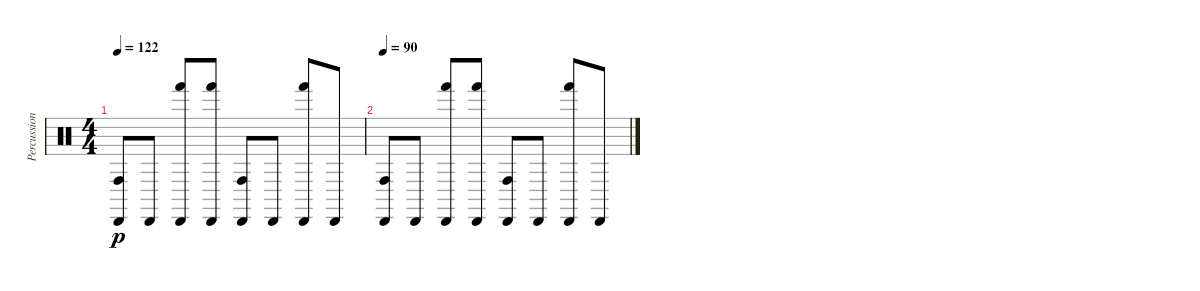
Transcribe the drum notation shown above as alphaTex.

\track ("Percussion" "Percussion") {instrument percussion}
\staff {score}
\articulation defaults
\ts (4 4)
\tempo 122
\clef neutral
\ks c
("Conga high (hit)" "Cabasa (hit)").8{dy p} "Cabasa (hit)".8 ("Hand (hit)" "Cabasa (hit)").8 ("Hand (hit)" "Cabasa (hit)").8 ("Conga high (hit)" "Cabasa (hit)").8 "Cabasa (hit)".8 ("Hand (hit)" "Cabasa (hit)").8 "Cabasa (hit)".8 |
\tempo 90
("Conga high (hit)" "Cabasa (hit)").8 "Cabasa (hit)".8 ("Hand (hit)" "Cabasa (hit)").8 ("Hand (hit)" "Cabasa (hit)").8 ("Conga high (hit)" "Cabasa (hit)").8 "Cabasa (hit)".8 ("Hand (hit)" "Cabasa (hit)").8 "Cabasa (hit)".8
